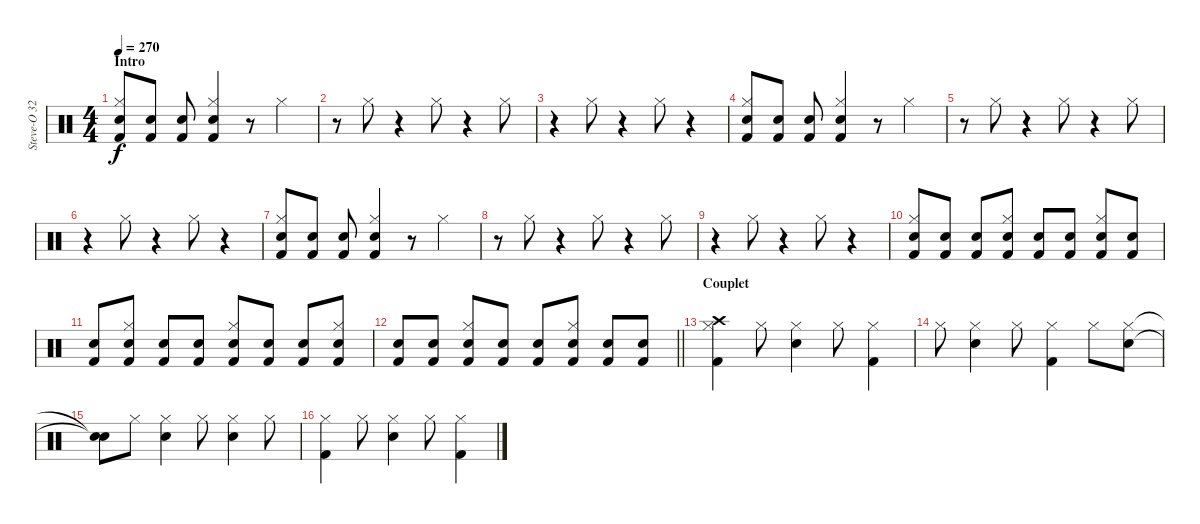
\track ("Steve-O 32" "Steve-O 32") {instrument percussion}
\staff {score}
\articulation defaults
\ts (4 4)
\section ("" "Intro")
\tempo 270
\clef neutral
\ks c
("Electric Snare (hit)" "Hi-Hat (closed)" "Kick (hit) 2").8{dy f} ("Electric Snare (hit)" "Kick (hit) 2").8 ("Electric Snare (hit)" "Kick (hit) 2").8 ("Electric Snare (hit)" "Hi-Hat (closed)" "Kick (hit) 2").4 r.8 "Hi-Hat (closed)".4 |
r.8 "Hi-Hat (closed)".8 r.4 "Hi-Hat (closed)".8 r.4 "Hi-Hat (closed)".8 |
r.4 "Hi-Hat (closed)".8 r.4 "Hi-Hat (closed)".8 r.4 |
("Electric Snare (hit)" "Hi-Hat (closed)" "Kick (hit) 2").8 ("Electric Snare (hit)" "Kick (hit) 2").8 ("Electric Snare (hit)" "Kick (hit) 2").8 ("Electric Snare (hit)" "Hi-Hat (closed)" "Kick (hit) 2").4 r.8 "Hi-Hat (closed)".4 |
r.8 "Hi-Hat (closed)".8 r.4 "Hi-Hat (closed)".8 r.4 "Hi-Hat (closed)".8 |
r.4 "Hi-Hat (closed)".8 r.4 "Hi-Hat (closed)".8 r.4 |
("Electric Snare (hit)" "Hi-Hat (closed)" "Kick (hit) 2").8 ("Electric Snare (hit)" "Kick (hit) 2").8 ("Electric Snare (hit)" "Kick (hit) 2").8 ("Electric Snare (hit)" "Hi-Hat (closed)" "Kick (hit) 2").4 r.8 "Hi-Hat (closed)".4 |
r.8 "Hi-Hat (closed)".8 r.4 "Hi-Hat (closed)".8 r.4 "Hi-Hat (closed)".8 |
r.4 "Hi-Hat (closed)".8 r.4 "Hi-Hat (closed)".8 r.4 |
("Electric Snare (hit)" "Hi-Hat (closed)" "Kick (hit) 2").8 ("Electric Snare (hit)" "Kick (hit) 2").8 ("Electric Snare (hit)" "Kick (hit) 2").8 ("Electric Snare (hit)" "Hi-Hat (closed)" "Kick (hit) 2").8 ("Electric Snare (hit)" "Kick (hit) 2").8 ("Electric Snare (hit)" "Kick (hit) 2").8 ("Electric Snare (hit)" "Hi-Hat (closed)" "Kick (hit) 2").8 ("Electric Snare (hit)" "Kick (hit) 2").8 |
("Electric Snare (hit)" "Kick (hit) 2").8 ("Electric Snare (hit)" "Hi-Hat (closed)" "Kick (hit) 2").8 ("Electric Snare (hit)" "Kick (hit) 2").8 ("Electric Snare (hit)" "Kick (hit) 2").8 ("Electric Snare (hit)" "Hi-Hat (closed)" "Kick (hit) 2").8 ("Electric Snare (hit)" "Kick (hit) 2").8 ("Electric Snare (hit)" "Kick (hit) 2").8 ("Electric Snare (hit)" "Hi-Hat (closed)" "Kick (hit) 2").8 |
\barLineRight lightlight
("Electric Snare (hit)" "Kick (hit) 2").8 ("Electric Snare (hit)" "Kick (hit) 2").8 ("Electric Snare (hit)" "Hi-Hat (closed)" "Kick (hit) 2").8 ("Electric Snare (hit)" "Kick (hit) 2").8 ("Electric Snare (hit)" "Kick (hit) 2").8 ("Electric Snare (hit)" "Hi-Hat (closed)" "Kick (hit) 2").8 ("Electric Snare (hit)" "Kick (hit) 2").8 ("Electric Snare (hit)" "Kick (hit) 2").8 |
\section ("" "Couplet")
("Crash high (hit)" "Hi-Hat (closed)" "Kick (hit) 2").4 "Hi-Hat (closed)".8 ("Electric Snare (hit)" "Hi-Hat (closed)").4 "Hi-Hat (closed)".8 ("Kick (hit) 2" "Hi-Hat (closed)").4 |
"Hi-Hat (closed)".8 ("Electric Snare (hit)" "Hi-Hat (closed)").4 "Hi-Hat (closed)".8 ("Kick (hit) 2" "Hi-Hat (closed)").4 "Hi-Hat (closed)".8 ("Electric Snare (hit)" "Hi-Hat (closed)").8 |
("Snare (hit)"{t} "Snare (hit)"{t}).8 "Hi-Hat (closed)".8 ("Electric Snare (hit)" "Hi-Hat (closed)").4 "Hi-Hat (closed)".8 ("Electric Snare (hit)" "Hi-Hat (closed)").4 "Hi-Hat (closed)".8 |
("Hi-Hat (closed)" "Kick (hit) 2").4 "Hi-Hat (closed)".8 ("Electric Snare (hit)" "Hi-Hat (closed)").4 "Hi-Hat (closed)".8 ("Kick (hit) 2" "Hi-Hat (closed)").4
